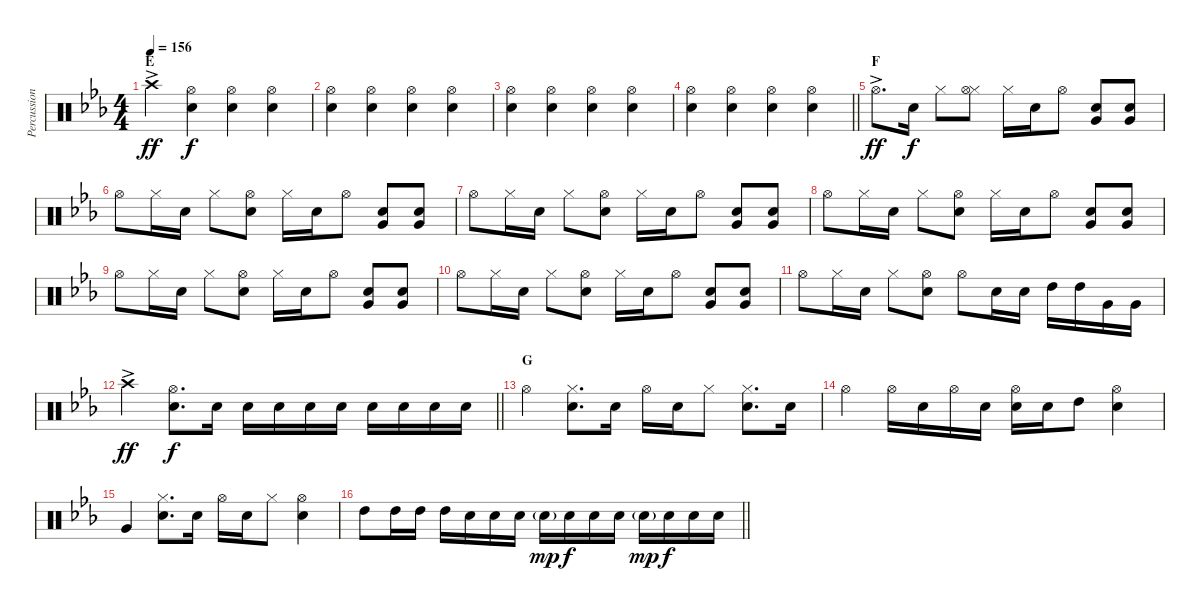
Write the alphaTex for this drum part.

\track ("Percussion hand" "Percussion") {instrument percussion}
\staff {score}
\articulation defaults
\ts (4 4)
\section ("" "E")
\tempo 156
\clef neutral
\ks eb "Crash high (hit)"{ac}.4{dy ff}
("Hi-Hat (open)" "Snare (hit) 2").4{dy f} ("Hi-Hat (open)" "Snare (hit) 2").4 ("Hi-Hat (open)" "Snare (hit) 2").4 |
("Hi-Hat (open)" "Snare (hit) 2").4 ("Hi-Hat (open)" "Snare (hit) 2").4 ("Hi-Hat (open)" "Snare (hit) 2").4 ("Hi-Hat (open)" "Snare (hit) 2").4 |
("Hi-Hat (open)" "Snare (hit) 2").4 ("Hi-Hat (open)" "Snare (hit) 2").4 ("Hi-Hat (open)" "Snare (hit) 2").4 ("Hi-Hat (open)" "Snare (hit) 2").4 |
\barLineRight lightlight
("Hi-Hat (open)" "Snare (hit) 2").4 ("Hi-Hat (open)" "Snare (hit) 2").4 ("Hi-Hat (open)" "Snare (hit) 2").4 ("Hi-Hat (open)" "Snare (hit) 2").4 |
\section ("" "F")
"Hi-Hat (open)"{ac}.8{d dy ff} "Snare (hit) 2".16{dy f} "Hi-Hat (closed)".8 ("Hi-Hat (closed)" "Hi-Hat (open)").8 "Hi-Hat (closed)".16 "Snare (hit) 2".16 "Hi-Hat (open)".8 ("Snare (hit) 2" "Very Low Tom (hit)").8 ("Snare (hit) 2" "Very Low Tom (hit)").8 |
"Hi-Hat (open)".8 "Hi-Hat (closed)".16 "Snare (hit) 2".16 "Hi-Hat (closed)".8 ("Hi-Hat (open)" "Snare (hit) 2").8 "Hi-Hat (closed)".16 "Snare (hit) 2".16 "Hi-Hat (open)".8 ("Snare (hit) 2" "Very Low Tom (hit)").8 ("Snare (hit) 2" "Very Low Tom (hit)").8 |
"Hi-Hat (open)".8 "Hi-Hat (closed)".16 "Snare (hit) 2".16 "Hi-Hat (closed)".8 ("Hi-Hat (open)" "Snare (hit) 2").8 "Hi-Hat (closed)".16 "Snare (hit) 2".16 "Hi-Hat (open)".8 ("Snare (hit) 2" "Very Low Tom (hit)").8 ("Snare (hit) 2" "Very Low Tom (hit)").8 |
"Hi-Hat (open)".8 "Hi-Hat (closed)".16 "Snare (hit) 2".16 "Hi-Hat (closed)".8 ("Hi-Hat (open)" "Snare (hit) 2").8 "Hi-Hat (closed)".16 "Snare (hit) 2".16 "Hi-Hat (open)".8 ("Snare (hit) 2" "Very Low Tom (hit)").8 ("Snare (hit) 2" "Very Low Tom (hit)").8 |
"Hi-Hat (open)".8 "Hi-Hat (closed)".16 "Snare (hit) 2".16 "Hi-Hat (closed)".8 ("Hi-Hat (open)" "Snare (hit) 2").8 "Hi-Hat (closed)".16 "Snare (hit) 2".16 "Hi-Hat (open)".8 ("Snare (hit) 2" "Very Low Tom (hit)").8 ("Snare (hit) 2" "Very Low Tom (hit)").8 |
"Hi-Hat (open)".8 "Hi-Hat (closed)".16 "Snare (hit) 2".16 "Hi-Hat (closed)".8 ("Hi-Hat (open)" "Snare (hit) 2").8 "Hi-Hat (closed)".16 "Snare (hit) 2".16 "Hi-Hat (open)".8 ("Snare (hit) 2" "Very Low Tom (hit)").8 ("Snare (hit) 2" "Very Low Tom (hit)").8 |
"Hi-Hat (open)".8 "Hi-Hat (closed)".16 "Snare (hit) 2".16 "Hi-Hat (closed)".8 ("Hi-Hat (open)" "Snare (hit) 2").8 "Hi-Hat (open)".8 "Snare (hit) 2".16 "Snare (hit) 2".16 "High Tom (hit)".16 "High Tom (hit)".16 "Very Low Tom (hit)".16 "Very Low Tom (hit)".16 |
\barLineRight lightlight "Crash high (hit)"{ac}.4{dy ff}
("Hi-Hat (open)" "Snare (hit) 2").8{d dy f} "Snare (hit) 2".16 "Snare (hit) 2".16 "Snare (hit) 2".16 "Snare (hit) 2".16 "Snare (hit) 2".16 "Snare (hit) 2".16 "Snare (hit) 2".16 "Snare (hit) 2".16 "Snare (hit) 2".16 |
\section ("" "G")
"Hi-Hat (open)".4 ("Hi-Hat (closed)" "Snare (hit) 2").8{d} "Snare (hit) 2".16 "Hi-Hat (open)".16 "Snare (hit) 2".16 "Hi-Hat (closed)".8 ("Hi-Hat (closed)" "Snare (hit) 2").8{d} "Snare (hit) 2".16 |
"Hi-Hat (open)".4 "Hi-Hat (open)".16 "Snare (hit) 2".16 "Hi-Hat (open)".16 "Snare (hit) 2".16 ("Hi-Hat (open)" "Snare (hit) 2").16 "Snare (hit) 2".16 "High Tom (hit)".8 ("Hi-Hat (open)" "Snare (hit) 2").4 |
"Very Low Tom (hit)".4 ("Hi-Hat (closed)" "Snare (hit) 2").8{d} "Snare (hit) 2".16 "Hi-Hat (open)".16 "Snare (hit) 2".16 "Hi-Hat (closed)".8 ("Hi-Hat (open)" "Snare (hit) 2").4 |
\barLineRight lightlight "High Tom (hit)".8 "High Tom (hit)".16 "High Tom (hit)".16 "High Tom (hit)".16 "Snare (hit) 2".16 "Snare (hit) 2".16 "Snare (hit) 2".16 "Snare (hit) 2"{g}.16{dy mp} "Snare (hit) 2".16{dy f} "Snare (hit) 2".16 "Snare (hit) 2".16 "Snare (hit) 2"{g}.16{dy mp} "Snare (hit) 2".16{dy f} "Snare (hit) 2".16 "Snare (hit) 2".16
